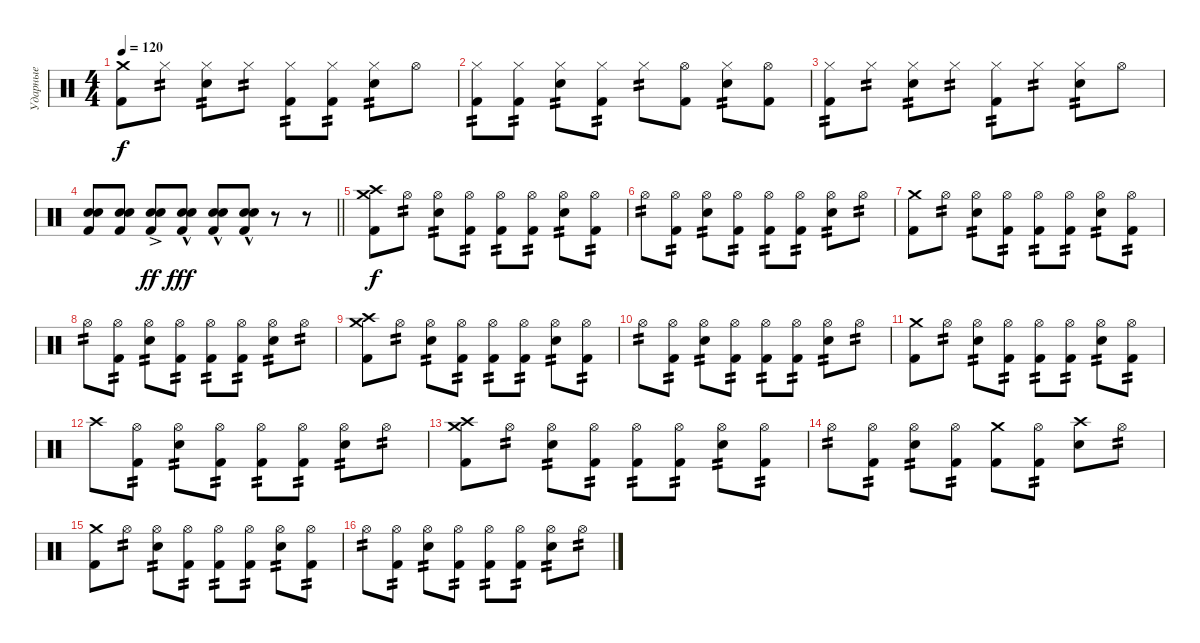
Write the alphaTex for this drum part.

\track ("Ударные" "Ударные") {instrument percussion}
\staff {score}
\articulation defaults
\ts (4 4)
\tempo 120
\clef neutral
\ks c
("Kick (hit) 2" "Crash medium (hit)").8{dy f} "Hi-Hat (closed)".8{tp 2} ("Hi-Hat (closed)" "Electric Snare (hit)").8{tp 2} "Hi-Hat (closed)".8{tp 2} ("Hi-Hat (closed)" "Kick (hit) 2").8{tp 2} ("Hi-Hat (closed)" "Kick (hit) 2").8{tp 2} ("Hi-Hat (closed)" "Electric Snare (hit)").8{tp 2} "Hi-Hat (open)".8 |
("Kick (hit) 2" "Hi-Hat (closed)").8{tp 2} ("Kick (hit) 2" "Hi-Hat (closed)").8{tp 2} ("Electric Snare (hit)" "Hi-Hat (closed)").8{tp 2} ("Kick (hit) 2" "Hi-Hat (closed)").8{tp 2} "Hi-Hat (closed)".8{tp 2} ("Kick (hit) 2" "Hi-Hat (open)").8 ("Electric Snare (hit)" "Hi-Hat (closed)").8{tp 2} ("Kick (hit) 2" "Hi-Hat (open)").8 |
("Kick (hit) 2" "Hi-Hat (closed)").8{tp 2} "Hi-Hat (closed)".8{tp 2} ("Electric Snare (hit)" "Hi-Hat (closed)").8{tp 2} "Hi-Hat (closed)".8{tp 2} ("Kick (hit) 2" "Hi-Hat (closed)").8{tp 2} "Hi-Hat (closed)".8{tp 2} ("Electric Snare (hit)" "Hi-Hat (closed)").8{tp 2} "Hi-Hat (open)".8 |
\barLineRight lightlight
("Electric Snare (hit)" "Electric Snare (hit)" "Kick (hit) 2").8 ("Electric Snare (hit)" "Electric Snare (hit)" "Kick (hit) 2").8 ("Electric Snare (hit)"{ac} "Electric Snare (hit)"{ac} "Kick (hit) 2").8{dy ff} ("Electric Snare (hit)"{hac} "Electric Snare (hit)"{hac} "Kick (hit) 2").8{dy fff} ("Electric Snare (hit)"{hac} "Electric Snare (hit)"{hac} "Kick (hit) 2").8 ("Electric Snare (hit)"{hac} "Electric Snare (hit)"{hac} "Kick (hit) 2").8 r.8 r.8 |
("Crash high (hit)" "Crash medium (hit)" "Kick (hit) 2").8{dy f} "Hi-Hat (open)".8{tp 2} ("Hi-Hat (open)" "Electric Snare (hit)").8{tp 2} ("Hi-Hat (open)" "Kick (hit) 2").8{tp 2} ("Hi-Hat (open)" "Kick (hit) 2").8{tp 2} ("Hi-Hat (open)" "Kick (hit) 2").8{tp 2} ("Hi-Hat (open)" "Electric Snare (hit)").8{tp 2} ("Hi-Hat (open)" "Kick (hit) 2").8{tp 2} |
"Hi-Hat (open)".8{tp 2} ("Hi-Hat (open)" "Kick (hit) 2").8{tp 2} ("Hi-Hat (open)" "Electric Snare (hit)").8{tp 2} ("Hi-Hat (open)" "Kick (hit) 2").8{tp 2} ("Hi-Hat (open)" "Kick (hit) 2").8{tp 2} ("Hi-Hat (open)" "Kick (hit) 2").8{tp 2} ("Hi-Hat (open)" "Electric Snare (hit)").8{tp 2} "Hi-Hat (open)".8{tp 2} |
("Crash medium (hit)" "Kick (hit) 2").8 "Hi-Hat (open)".8{tp 2} ("Hi-Hat (open)" "Electric Snare (hit)").8{tp 2} ("Hi-Hat (open)" "Kick (hit) 2").8{tp 2} ("Hi-Hat (open)" "Kick (hit) 2").8{tp 2} ("Hi-Hat (open)" "Kick (hit) 2").8{tp 2} ("Hi-Hat (open)" "Electric Snare (hit)").8{tp 2} ("Hi-Hat (open)" "Kick (hit) 2").8{tp 2} |
"Hi-Hat (open)".8{tp 2} ("Hi-Hat (open)" "Kick (hit) 2").8{tp 2} ("Hi-Hat (open)" "Electric Snare (hit)").8{tp 2} ("Hi-Hat (open)" "Kick (hit) 2").8{tp 2} ("Hi-Hat (open)" "Kick (hit) 2").8{tp 2} ("Hi-Hat (open)" "Kick (hit) 2").8{tp 2} ("Hi-Hat (open)" "Electric Snare (hit)").8{tp 2} "Hi-Hat (open)".8{tp 2} |
("Crash high (hit)" "Crash medium (hit)" "Kick (hit) 2").8 "Hi-Hat (open)".8{tp 2} ("Hi-Hat (open)" "Electric Snare (hit)").8{tp 2} ("Hi-Hat (open)" "Kick (hit) 2").8{tp 2} ("Hi-Hat (open)" "Kick (hit) 2").8{tp 2} ("Hi-Hat (open)" "Kick (hit) 2").8{tp 2} ("Hi-Hat (open)" "Electric Snare (hit)").8{tp 2} ("Hi-Hat (open)" "Kick (hit) 2").8{tp 2} |
"Hi-Hat (open)".8{tp 2} ("Hi-Hat (open)" "Kick (hit) 2").8{tp 2} ("Hi-Hat (open)" "Electric Snare (hit)").8{tp 2} ("Hi-Hat (open)" "Kick (hit) 2").8{tp 2} ("Hi-Hat (open)" "Kick (hit) 2").8{tp 2} ("Hi-Hat (open)" "Kick (hit) 2").8{tp 2} ("Hi-Hat (open)" "Electric Snare (hit)").8{tp 2} "Hi-Hat (open)".8{tp 2} |
("Crash medium (hit)" "Kick (hit) 2").8 "Hi-Hat (open)".8{tp 2} ("Hi-Hat (open)" "Electric Snare (hit)").8{tp 2} ("Hi-Hat (open)" "Kick (hit) 2").8{tp 2} ("Hi-Hat (open)" "Kick (hit) 2").8{tp 2} ("Hi-Hat (open)" "Kick (hit) 2").8{tp 2} ("Hi-Hat (open)" "Electric Snare (hit)").8{tp 2} ("Hi-Hat (open)" "Kick (hit) 2").8{tp 2} |
"Crash high (hit)".8 ("Hi-Hat (open)" "Kick (hit) 2").8{tp 2} ("Hi-Hat (open)" "Electric Snare (hit)").8{tp 2} ("Hi-Hat (open)" "Kick (hit) 2").8{tp 2} ("Hi-Hat (open)" "Kick (hit) 2").8{tp 2} ("Hi-Hat (open)" "Kick (hit) 2").8{tp 2} ("Hi-Hat (open)" "Electric Snare (hit)").8{tp 2} "Hi-Hat (open)".8{tp 2} |
("Crash high (hit)" "Crash medium (hit)" "Kick (hit) 2").8 "Hi-Hat (open)".8{tp 2} ("Hi-Hat (open)" "Electric Snare (hit)").8{tp 2} ("Hi-Hat (open)" "Kick (hit) 2").8{tp 2} ("Hi-Hat (open)" "Kick (hit) 2").8{tp 2} ("Hi-Hat (open)" "Kick (hit) 2").8{tp 2} ("Hi-Hat (open)" "Electric Snare (hit)").8{tp 2} ("Hi-Hat (open)" "Kick (hit) 2").8{tp 2} |
"Hi-Hat (open)".8{tp 2} ("Hi-Hat (open)" "Kick (hit) 2").8{tp 2} ("Hi-Hat (open)" "Electric Snare (hit)").8{tp 2} ("Hi-Hat (open)" "Kick (hit) 2").8{tp 2} ("Crash medium (hit)" "Kick (hit) 2").8 ("Hi-Hat (open)" "Kick (hit) 2").8{tp 2} ("Crash high (hit)" "Electric Snare (hit)").8 "Hi-Hat (open)".8{tp 2} |
("Crash medium (hit)" "Kick (hit) 2").8 "Hi-Hat (open)".8{tp 2} ("Hi-Hat (open)" "Electric Snare (hit)").8{tp 2} ("Hi-Hat (open)" "Kick (hit) 2").8{tp 2} ("Hi-Hat (open)" "Kick (hit) 2").8{tp 2} ("Hi-Hat (open)" "Kick (hit) 2").8{tp 2} ("Hi-Hat (open)" "Electric Snare (hit)").8{tp 2} ("Hi-Hat (open)" "Kick (hit) 2").8{tp 2} |
"Hi-Hat (open)".8{tp 2} ("Hi-Hat (open)" "Kick (hit) 2").8{tp 2} ("Hi-Hat (open)" "Electric Snare (hit)").8{tp 2} ("Hi-Hat (open)" "Kick (hit) 2").8{tp 2} ("Hi-Hat (open)" "Kick (hit) 2").8{tp 2} ("Hi-Hat (open)" "Kick (hit) 2").8{tp 2} ("Hi-Hat (open)" "Electric Snare (hit)").8{tp 2} "Hi-Hat (open)".8{tp 2}
